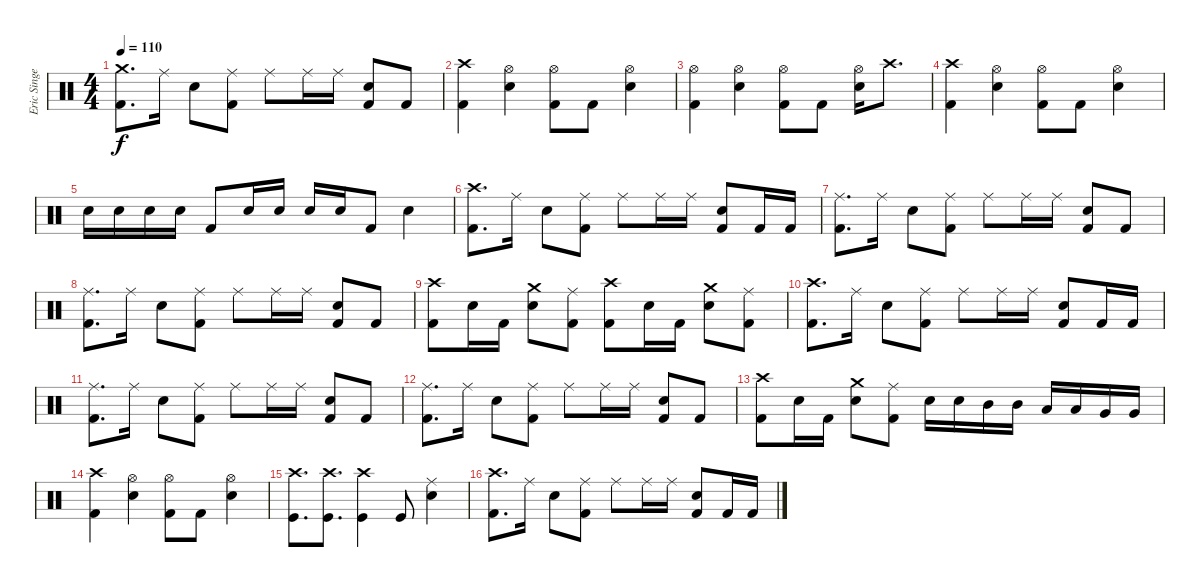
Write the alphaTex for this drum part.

\track ("Eric Singer" "Eric Singe") {instrument percussion}
\staff {score}
\articulation defaults
\ts (4 4)
\tempo 110
\clef neutral
\ks c
("Crash medium (hit)" "Kick (hit) 2").8{d dy f} "Ride (middle)".16 "Electric Snare (hit)".8 ("Ride (middle)" "Kick (hit) 2").8 "Ride (middle)".8 "Ride (middle)".16 "Ride (middle)".16 ("Electric Snare (hit)" "Kick (hit) 2").8 "Kick (hit) 2".8 |
("Kick (hit) 2" "Crash high (hit)").4 ("Electric Snare (hit)" "Hi-Hat (open)").4 ("Kick (hit) 2" "Hi-Hat (open)").8 "Kick (hit) 2".8 ("Electric Snare (hit)" "Hi-Hat (open)").4 |
("Kick (hit) 2" "Hi-Hat (open)").4 ("Electric Snare (hit)" "Hi-Hat (open)").4 ("Kick (hit) 2" "Hi-Hat (open)").8 "Kick (hit) 2".8 ("Electric Snare (hit)" "Hi-Hat (open)").16 "Crash high (hit)".8{d} |
("Kick (hit) 2" "Crash high (hit)").4 ("Electric Snare (hit)" "Hi-Hat (open)").4 ("Kick (hit) 2" "Hi-Hat (open)").8 "Kick (hit) 2".8 ("Electric Snare (hit)" "Hi-Hat (open)").4 |
"Snare (hit) 2".16 "Snare (hit) 2".16 "Snare (hit) 2".16 "Snare (hit) 2".16 "Kick (hit) 2".8 "Snare (hit) 2".16 "Snare (hit) 2".16 "Snare (hit) 2".16 "Snare (hit) 2".16 "Kick (hit) 2".8 "Electric Snare (hit)".4 |
("Crash high (hit)" "Kick (hit) 2").8{d} "Ride (middle)".16 "Electric Snare (hit)".8 ("Ride (middle)" "Kick (hit) 2").8 "Ride (middle)".8 "Ride (middle)".16 "Ride (middle)".16 ("Electric Snare (hit)" "Kick (hit) 2").8 "Kick (hit) 2".16 "Kick (hit) 2".16 |
("Ride (middle)" "Kick (hit) 2").8{d} "Ride (middle)".16 "Electric Snare (hit)".8 ("Ride (middle)" "Kick (hit) 2").8 "Ride (middle)".8 "Ride (middle)".16 "Ride (middle)".16 ("Electric Snare (hit)" "Kick (hit) 2").8 "Kick (hit) 2".8 |
("Ride (middle)" "Kick (hit) 2").8{d} "Ride (middle)".16 "Electric Snare (hit)".8 ("Ride (middle)" "Kick (hit) 2").8 "Ride (middle)".8 "Ride (middle)".16 "Ride (middle)".16 ("Electric Snare (hit)" "Kick (hit) 2").8 "Kick (hit) 2".8 |
("Crash high (hit)" "Kick (hit) 2").8 "Snare (hit) 2".16 "Kick (hit) 2".16 ("Crash medium (hit)" "Snare (hit) 2").8 ("Ride (middle)" "Kick (hit) 2").8 ("Crash high (hit)" "Kick (hit) 2").8 "Snare (hit) 2".16 "Kick (hit) 2".16 ("Crash medium (hit)" "Snare (hit) 2").8 ("Ride (middle)" "Kick (hit) 2").8 |
("Crash high (hit)" "Kick (hit) 2").8{d} "Ride (middle)".16 "Electric Snare (hit)".8 ("Ride (middle)" "Kick (hit) 2").8 "Ride (middle)".8 "Ride (middle)".16 "Ride (middle)".16 ("Electric Snare (hit)" "Kick (hit) 2").8 "Kick (hit) 2".16 "Kick (hit) 2".16 |
("Ride (middle)" "Kick (hit) 2").8{d} "Ride (middle)".16 "Electric Snare (hit)".8 ("Ride (middle)" "Kick (hit) 2").8 "Ride (middle)".8 "Ride (middle)".16 "Ride (middle)".16 ("Electric Snare (hit)" "Kick (hit) 2").8 "Kick (hit) 2".8 |
("Ride (middle)" "Kick (hit) 2").8{d} "Ride (middle)".16 "Electric Snare (hit)".8 ("Ride (middle)" "Kick (hit) 2").8 "Ride (middle)".8 "Ride (middle)".16 "Ride (middle)".16 ("Electric Snare (hit)" "Kick (hit) 2").8 "Kick (hit) 2".8 |
("Crash high (hit)" "Kick (hit) 2").8 "Snare (hit) 2".16 "Kick (hit) 2".16 ("Crash medium (hit)" "Snare (hit) 2").8 ("Ride (middle)" "Kick (hit) 2").8 "Snare (hit) 2".16 "Snare (hit) 2".16 "Mid Tom (hit)".16 "Mid Tom (hit)".16 "Low Tom (hit)".16 "Low Tom (hit)".16 "Very Low Tom (hit)".16 "Very Low Tom (hit)".16 |
("Crash high (hit)" "Kick (hit) 2").4 ("Hi-Hat (open)" "Snare (hit) 2").4 ("Hi-Hat (open)" "Kick (hit) 2").8 "Kick (hit) 2".8 ("Hi-Hat (open)" "Snare (hit) 2").4 |
("Crash high (hit)" "Kick (hit)").8{d} ("Crash high (hit)" "Kick (hit)").8{d} ("Crash high (hit)" "Kick (hit)").4 "Kick (hit)".8 ("Ride (middle)" "Snare (hit) 2").4 |
("Crash high (hit)" "Kick (hit) 2").8{d} "Ride (middle)".16 "Electric Snare (hit)".8 ("Ride (middle)" "Kick (hit) 2").8 "Ride (middle)".8 "Ride (middle)".16 "Ride (middle)".16 ("Electric Snare (hit)" "Kick (hit) 2").8 "Kick (hit) 2".16 "Kick (hit) 2".16
